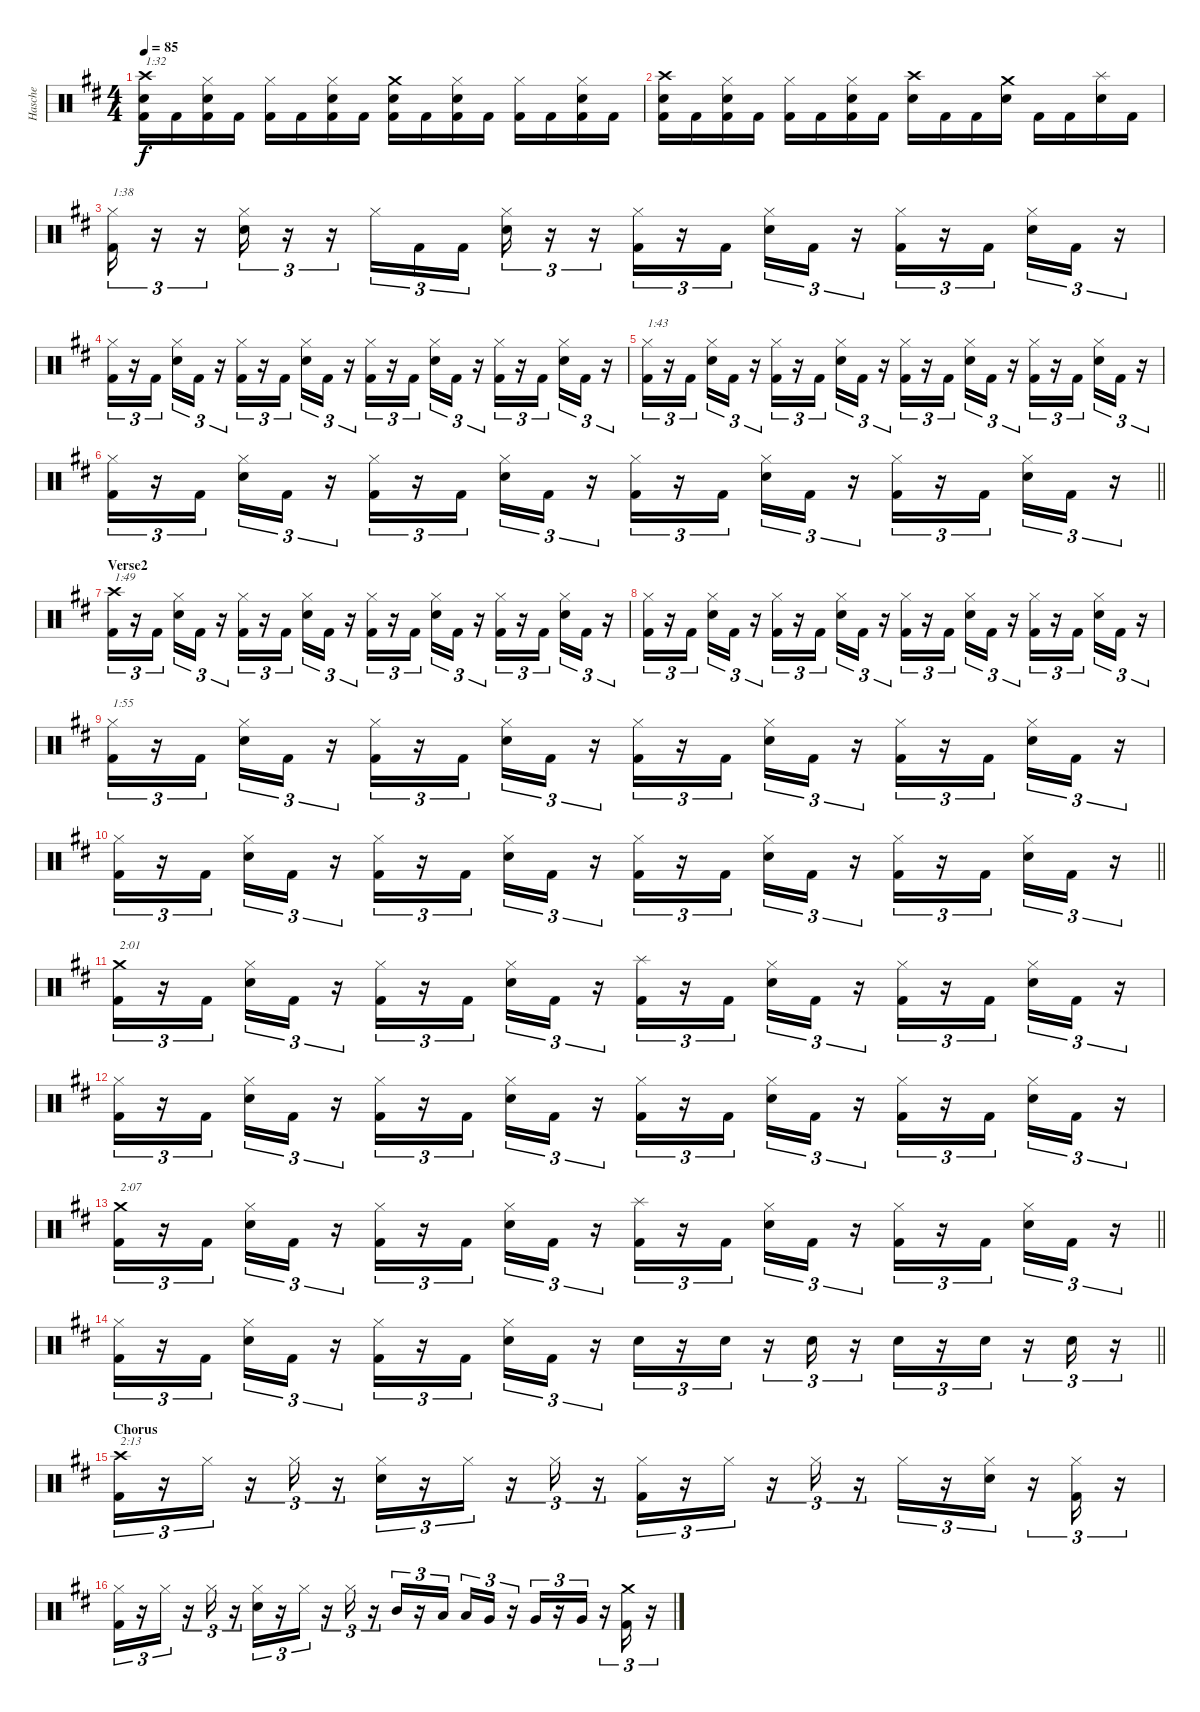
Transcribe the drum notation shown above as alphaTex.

\track ("Hasche" "Hasche") {instrument percussion}
\staff {score}
\articulation defaults
\ts (4 4)
\tempo 85
\clef neutral
\ks bminor
("Crash high (hit)" "Snare (hit) 2" "Kick (hit) 2").16{txt "1:32" dy f} "Kick (hit) 2".16 ("Hi-Hat (closed)" "Snare (hit) 2" "Kick (hit) 2").16 "Kick (hit) 2".16 ("Hi-Hat (closed)" "Kick (hit) 2").16 "Kick (hit) 2".16 ("Hi-Hat (closed)" "Snare (hit) 2" "Kick (hit) 2").16 "Kick (hit) 2".16 ("Crash medium (hit)" "Snare (hit) 2" "Kick (hit) 2").16 "Kick (hit) 2".16 ("Hi-Hat (closed)" "Snare (hit) 2" "Kick (hit) 2").16 "Kick (hit) 2".16 ("Hi-Hat (closed)" "Kick (hit) 2").16 "Kick (hit) 2".16 ("Hi-Hat (closed)" "Snare (hit) 2" "Kick (hit) 2").16 "Kick (hit) 2".16 |
("Crash high (hit)" "Snare (hit) 2" "Kick (hit) 2").16 "Kick (hit) 2".16 ("Hi-Hat (closed)" "Snare (hit) 2" "Kick (hit) 2").16 "Kick (hit) 2".16 ("Hi-Hat (closed)" "Kick (hit) 2").16 "Kick (hit) 2".16 ("Hi-Hat (closed)" "Snare (hit) 2" "Kick (hit) 2").16 "Kick (hit) 2".16 ("Crash high (hit)" "Snare (hit) 2").16 "Kick (hit) 2".16 "Kick (hit) 2".16 ("Crash medium (hit)" "Snare (hit) 2").16 "Kick (hit) 2".16 "Kick (hit) 2".16 ("Splash (hit)" "Snare (hit) 2").16 "Kick (hit) 2".16 |
("Hi-Hat (closed)" "Kick (hit) 2").16{tu (3 2) txt "1:38"} r.16{tu (3 2)} r.16{tu (3 2)} ("Hi-Hat (closed)" "Snare (hit) 2").16{tu (3 2)} r.16{tu (3 2)} r.16{tu (3 2)} "Hi-Hat (closed)".16{tu (3 2)} "Kick (hit) 2".16{tu (3 2)} "Kick (hit) 2".16{tu (3 2) beam splitsecondary} ("Hi-Hat (closed)" "Snare (hit) 2").16{tu (3 2)} r.16{tu (3 2)} r.16{tu (3 2)} ("Hi-Hat (closed)" "Kick (hit) 2").16{tu (3 2)} r.16{tu (3 2)} "Kick (hit) 2".16{tu (3 2) beam splitsecondary} ("Hi-Hat (closed)" "Snare (hit) 2").16{tu (3 2)} "Kick (hit) 2".16{tu (3 2)} r.16{tu (3 2)} ("Hi-Hat (closed)" "Kick (hit) 2").16{tu (3 2)} r.16{tu (3 2)} "Kick (hit) 2".16{tu (3 2) beam splitsecondary} ("Hi-Hat (closed)" "Snare (hit) 2").16{tu (3 2)} "Kick (hit) 2".16{tu (3 2)} r.16{tu (3 2)} |
("Hi-Hat (closed)" "Kick (hit) 2").16{tu (3 2)} r.16{tu (3 2)} "Kick (hit) 2".16{tu (3 2) beam splitsecondary} ("Hi-Hat (closed)" "Snare (hit) 2").16{tu (3 2)} "Kick (hit) 2".16{tu (3 2)} r.16{tu (3 2)} ("Hi-Hat (closed)" "Kick (hit) 2").16{tu (3 2)} r.16{tu (3 2)} "Kick (hit) 2".16{tu (3 2) beam splitsecondary} ("Hi-Hat (closed)" "Snare (hit) 2").16{tu (3 2)} "Kick (hit) 2".16{tu (3 2)} r.16{tu (3 2)} ("Hi-Hat (closed)" "Kick (hit) 2").16{tu (3 2)} r.16{tu (3 2)} "Kick (hit) 2".16{tu (3 2) beam splitsecondary} ("Hi-Hat (closed)" "Snare (hit) 2").16{tu (3 2)} "Kick (hit) 2".16{tu (3 2)} r.16{tu (3 2)} ("Hi-Hat (closed)" "Kick (hit) 2").16{tu (3 2)} r.16{tu (3 2)} "Kick (hit) 2".16{tu (3 2) beam splitsecondary} ("Hi-Hat (closed)" "Snare (hit) 2").16{tu (3 2)} "Kick (hit) 2".16{tu (3 2)} r.16{tu (3 2)} |
("Hi-Hat (closed)" "Kick (hit) 2").16{tu (3 2) txt "1:43"} r.16{tu (3 2)} "Kick (hit) 2".16{tu (3 2) beam splitsecondary} ("Hi-Hat (closed)" "Snare (hit) 2").16{tu (3 2)} "Kick (hit) 2".16{tu (3 2)} r.16{tu (3 2)} ("Hi-Hat (closed)" "Kick (hit) 2").16{tu (3 2)} r.16{tu (3 2)} "Kick (hit) 2".16{tu (3 2) beam splitsecondary} ("Hi-Hat (closed)" "Snare (hit) 2").16{tu (3 2)} "Kick (hit) 2".16{tu (3 2)} r.16{tu (3 2)} ("Hi-Hat (closed)" "Kick (hit) 2").16{tu (3 2)} r.16{tu (3 2)} "Kick (hit) 2".16{tu (3 2) beam splitsecondary} ("Hi-Hat (closed)" "Snare (hit) 2").16{tu (3 2)} "Kick (hit) 2".16{tu (3 2)} r.16{tu (3 2)} ("Hi-Hat (closed)" "Kick (hit) 2").16{tu (3 2)} r.16{tu (3 2)} "Kick (hit) 2".16{tu (3 2) beam splitsecondary} ("Hi-Hat (closed)" "Snare (hit) 2").16{tu (3 2)} "Kick (hit) 2".16{tu (3 2)} r.16{tu (3 2)} |
\barLineRight lightlight
("Hi-Hat (closed)" "Kick (hit) 2").16{tu (3 2)} r.16{tu (3 2)} "Kick (hit) 2".16{tu (3 2) beam splitsecondary} ("Hi-Hat (closed)" "Snare (hit) 2").16{tu (3 2)} "Kick (hit) 2".16{tu (3 2)} r.16{tu (3 2)} ("Hi-Hat (closed)" "Kick (hit) 2").16{tu (3 2)} r.16{tu (3 2)} "Kick (hit) 2".16{tu (3 2) beam splitsecondary} ("Hi-Hat (closed)" "Snare (hit) 2").16{tu (3 2)} "Kick (hit) 2".16{tu (3 2)} r.16{tu (3 2)} ("Hi-Hat (closed)" "Kick (hit) 2").16{tu (3 2)} r.16{tu (3 2)} "Kick (hit) 2".16{tu (3 2) beam splitsecondary} ("Hi-Hat (closed)" "Snare (hit) 2").16{tu (3 2)} "Kick (hit) 2".16{tu (3 2)} r.16{tu (3 2)} ("Hi-Hat (closed)" "Kick (hit) 2").16{tu (3 2)} r.16{tu (3 2)} "Kick (hit) 2".16{tu (3 2) beam splitsecondary} ("Hi-Hat (closed)" "Snare (hit) 2").16{tu (3 2)} "Kick (hit) 2".16{tu (3 2)} r.16{tu (3 2)} |
\section ("" "Verse2")
("Crash high (hit)" "Kick (hit) 2").16{tu (3 2) txt "1:49"} r.16{tu (3 2)} "Kick (hit) 2".16{tu (3 2) beam splitsecondary} ("Hi-Hat (closed)" "Snare (hit) 2").16{tu (3 2)} "Kick (hit) 2".16{tu (3 2)} r.16{tu (3 2)} ("Hi-Hat (closed)" "Kick (hit) 2").16{tu (3 2)} r.16{tu (3 2)} "Kick (hit) 2".16{tu (3 2) beam splitsecondary} ("Hi-Hat (closed)" "Snare (hit) 2").16{tu (3 2)} "Kick (hit) 2".16{tu (3 2)} r.16{tu (3 2)} ("Hi-Hat (closed)" "Kick (hit) 2").16{tu (3 2)} r.16{tu (3 2)} "Kick (hit) 2".16{tu (3 2) beam splitsecondary} ("Hi-Hat (closed)" "Snare (hit) 2").16{tu (3 2)} "Kick (hit) 2".16{tu (3 2)} r.16{tu (3 2)} ("Hi-Hat (closed)" "Kick (hit) 2").16{tu (3 2)} r.16{tu (3 2)} "Kick (hit) 2".16{tu (3 2) beam splitsecondary} ("Hi-Hat (closed)" "Snare (hit) 2").16{tu (3 2)} "Kick (hit) 2".16{tu (3 2)} r.16{tu (3 2)} |
("Hi-Hat (closed)" "Kick (hit) 2").16{tu (3 2)} r.16{tu (3 2)} "Kick (hit) 2".16{tu (3 2) beam splitsecondary} ("Hi-Hat (closed)" "Snare (hit) 2").16{tu (3 2)} "Kick (hit) 2".16{tu (3 2)} r.16{tu (3 2)} ("Hi-Hat (closed)" "Kick (hit) 2").16{tu (3 2)} r.16{tu (3 2)} "Kick (hit) 2".16{tu (3 2) beam splitsecondary} ("Hi-Hat (closed)" "Snare (hit) 2").16{tu (3 2)} "Kick (hit) 2".16{tu (3 2)} r.16{tu (3 2)} ("Hi-Hat (closed)" "Kick (hit) 2").16{tu (3 2)} r.16{tu (3 2)} "Kick (hit) 2".16{tu (3 2) beam splitsecondary} ("Hi-Hat (closed)" "Snare (hit) 2").16{tu (3 2)} "Kick (hit) 2".16{tu (3 2)} r.16{tu (3 2)} ("Hi-Hat (closed)" "Kick (hit) 2").16{tu (3 2)} r.16{tu (3 2)} "Kick (hit) 2".16{tu (3 2) beam splitsecondary} ("Hi-Hat (closed)" "Snare (hit) 2").16{tu (3 2)} "Kick (hit) 2".16{tu (3 2)} r.16{tu (3 2)} |
("Hi-Hat (closed)" "Kick (hit) 2").16{tu (3 2) txt "1:55"} r.16{tu (3 2)} "Kick (hit) 2".16{tu (3 2) beam splitsecondary} ("Hi-Hat (closed)" "Snare (hit) 2").16{tu (3 2)} "Kick (hit) 2".16{tu (3 2)} r.16{tu (3 2)} ("Hi-Hat (closed)" "Kick (hit) 2").16{tu (3 2)} r.16{tu (3 2)} "Kick (hit) 2".16{tu (3 2) beam splitsecondary} ("Hi-Hat (closed)" "Snare (hit) 2").16{tu (3 2)} "Kick (hit) 2".16{tu (3 2)} r.16{tu (3 2)} ("Hi-Hat (closed)" "Kick (hit) 2").16{tu (3 2)} r.16{tu (3 2)} "Kick (hit) 2".16{tu (3 2) beam splitsecondary} ("Hi-Hat (closed)" "Snare (hit) 2").16{tu (3 2)} "Kick (hit) 2".16{tu (3 2)} r.16{tu (3 2)} ("Hi-Hat (closed)" "Kick (hit) 2").16{tu (3 2)} r.16{tu (3 2)} "Kick (hit) 2".16{tu (3 2) beam splitsecondary} ("Hi-Hat (closed)" "Snare (hit) 2").16{tu (3 2)} "Kick (hit) 2".16{tu (3 2)} r.16{tu (3 2)} |
\barLineRight lightlight
("Hi-Hat (closed)" "Kick (hit) 2").16{tu (3 2)} r.16{tu (3 2)} "Kick (hit) 2".16{tu (3 2) beam splitsecondary} ("Hi-Hat (closed)" "Snare (hit) 2").16{tu (3 2)} "Kick (hit) 2".16{tu (3 2)} r.16{tu (3 2)} ("Hi-Hat (closed)" "Kick (hit) 2").16{tu (3 2)} r.16{tu (3 2)} "Kick (hit) 2".16{tu (3 2) beam splitsecondary} ("Hi-Hat (closed)" "Snare (hit) 2").16{tu (3 2)} "Kick (hit) 2".16{tu (3 2)} r.16{tu (3 2)} ("Hi-Hat (closed)" "Kick (hit) 2").16{tu (3 2)} r.16{tu (3 2)} "Kick (hit) 2".16{tu (3 2) beam splitsecondary} ("Hi-Hat (closed)" "Snare (hit) 2").16{tu (3 2)} "Kick (hit) 2".16{tu (3 2)} r.16{tu (3 2)} ("Hi-Hat (closed)" "Kick (hit) 2").16{tu (3 2)} r.16{tu (3 2)} "Kick (hit) 2".16{tu (3 2) beam splitsecondary} ("Hi-Hat (closed)" "Snare (hit) 2").16{tu (3 2)} "Kick (hit) 2".16{tu (3 2)} r.16{tu (3 2)} |
("Crash medium (hit)" "Kick (hit) 2").16{tu (3 2) txt "2:01"} r.16{tu (3 2)} "Kick (hit) 2".16{tu (3 2) beam splitsecondary} ("Hi-Hat (closed)" "Snare (hit) 2").16{tu (3 2)} "Kick (hit) 2".16{tu (3 2)} r.16{tu (3 2)} ("Hi-Hat (closed)" "Kick (hit) 2").16{tu (3 2)} r.16{tu (3 2)} "Kick (hit) 2".16{tu (3 2) beam splitsecondary} ("Hi-Hat (closed)" "Snare (hit) 2").16{tu (3 2)} "Kick (hit) 2".16{tu (3 2)} r.16{tu (3 2)} ("Splash (hit)" "Kick (hit) 2").16{tu (3 2)} r.16{tu (3 2)} "Kick (hit) 2".16{tu (3 2) beam splitsecondary} ("Hi-Hat (closed)" "Snare (hit) 2").16{tu (3 2)} "Kick (hit) 2".16{tu (3 2)} r.16{tu (3 2)} ("Hi-Hat (closed)" "Kick (hit) 2").16{tu (3 2)} r.16{tu (3 2)} "Kick (hit) 2".16{tu (3 2) beam splitsecondary} ("Hi-Hat (closed)" "Snare (hit) 2").16{tu (3 2)} "Kick (hit) 2".16{tu (3 2)} r.16{tu (3 2)} |
("Hi-Hat (closed)" "Kick (hit) 2").16{tu (3 2)} r.16{tu (3 2)} "Kick (hit) 2".16{tu (3 2) beam splitsecondary} ("Hi-Hat (closed)" "Snare (hit) 2").16{tu (3 2)} "Kick (hit) 2".16{tu (3 2)} r.16{tu (3 2)} ("Hi-Hat (closed)" "Kick (hit) 2").16{tu (3 2)} r.16{tu (3 2)} "Kick (hit) 2".16{tu (3 2) beam splitsecondary} ("Hi-Hat (closed)" "Snare (hit) 2").16{tu (3 2)} "Kick (hit) 2".16{tu (3 2)} r.16{tu (3 2)} ("Hi-Hat (closed)" "Kick (hit) 2").16{tu (3 2)} r.16{tu (3 2)} "Kick (hit) 2".16{tu (3 2) beam splitsecondary} ("Hi-Hat (closed)" "Snare (hit) 2").16{tu (3 2)} "Kick (hit) 2".16{tu (3 2)} r.16{tu (3 2)} ("Hi-Hat (closed)" "Kick (hit) 2").16{tu (3 2)} r.16{tu (3 2)} "Kick (hit) 2".16{tu (3 2) beam splitsecondary} ("Hi-Hat (closed)" "Snare (hit) 2").16{tu (3 2)} "Kick (hit) 2".16{tu (3 2)} r.16{tu (3 2)} |
\barLineRight lightlight
("Crash medium (hit)" "Kick (hit) 2").16{tu (3 2) txt "2:07"} r.16{tu (3 2)} "Kick (hit) 2".16{tu (3 2) beam splitsecondary} ("Hi-Hat (closed)" "Snare (hit) 2").16{tu (3 2)} "Kick (hit) 2".16{tu (3 2)} r.16{tu (3 2)} ("Hi-Hat (closed)" "Kick (hit) 2").16{tu (3 2)} r.16{tu (3 2)} "Kick (hit) 2".16{tu (3 2) beam splitsecondary} ("Hi-Hat (closed)" "Snare (hit) 2").16{tu (3 2)} "Kick (hit) 2".16{tu (3 2)} r.16{tu (3 2)} ("Splash (hit)" "Kick (hit) 2").16{tu (3 2)} r.16{tu (3 2)} "Kick (hit) 2".16{tu (3 2) beam splitsecondary} ("Hi-Hat (closed)" "Snare (hit) 2").16{tu (3 2)} "Kick (hit) 2".16{tu (3 2)} r.16{tu (3 2)} ("Hi-Hat (closed)" "Kick (hit) 2").16{tu (3 2)} r.16{tu (3 2)} "Kick (hit) 2".16{tu (3 2) beam splitsecondary} ("Hi-Hat (closed)" "Snare (hit) 2").16{tu (3 2)} "Kick (hit) 2".16{tu (3 2)} r.16{tu (3 2)} |
\barLineRight lightlight
("Hi-Hat (closed)" "Kick (hit) 2").16{tu (3 2)} r.16{tu (3 2)} "Kick (hit) 2".16{tu (3 2) beam splitsecondary} ("Hi-Hat (closed)" "Snare (hit) 2").16{tu (3 2)} "Kick (hit) 2".16{tu (3 2)} r.16{tu (3 2)} ("Hi-Hat (closed)" "Kick (hit) 2").16{tu (3 2)} r.16{tu (3 2)} "Kick (hit) 2".16{tu (3 2) beam splitsecondary} ("Hi-Hat (closed)" "Snare (hit) 2").16{tu (3 2)} "Kick (hit) 2".16{tu (3 2)} r.16{tu (3 2)} "Snare (hit) 2".16{tu (3 2)} r.16{tu (3 2)} "Snare (hit) 2".16{tu (3 2)} r.16{tu (3 2)} "Snare (hit) 2".16{tu (3 2)} r.16{tu (3 2)} "Snare (hit) 2".16{tu (3 2)} r.16{tu (3 2)} "Snare (hit) 2".16{tu (3 2)} r.16{tu (3 2)} "Snare (hit) 2".16{tu (3 2)} r.16{tu (3 2)} |
\section ("" "Chorus")
("Crash high (hit)" "Kick (hit) 2").16{tu (3 2) txt "2:13"} r.16{tu (3 2)} "Hi-Hat (closed)".16{tu (3 2)} r.16{tu (3 2)} "Hi-Hat (closed)".16{tu (3 2)} r.16{tu (3 2)} ("Hi-Hat (closed)" "Snare (hit) 2").16{tu (3 2)} r.16{tu (3 2)} "Hi-Hat (closed)".16{tu (3 2)} r.16{tu (3 2)} "Hi-Hat (closed)".16{tu (3 2)} r.16{tu (3 2)} ("Hi-Hat (closed)" "Kick (hit) 2").16{tu (3 2)} r.16{tu (3 2)} "Hi-Hat (closed)".16{tu (3 2)} r.16{tu (3 2)} "Hi-Hat (closed)".16{tu (3 2)} r.16{tu (3 2)} "Hi-Hat (closed)".16{tu (3 2)} r.16{tu (3 2)} ("Hi-Hat (closed)" "Snare (hit) 2").16{tu (3 2)} r.16{tu (3 2)} ("Hi-Hat (closed)" "Kick (hit) 2").16{tu (3 2)} r.16{tu (3 2)} |
("Hi-Hat (closed)" "Kick (hit) 2").16{tu (3 2)} r.16{tu (3 2)} "Hi-Hat (closed)".16{tu (3 2)} r.16{tu (3 2)} "Hi-Hat (closed)".16{tu (3 2)} r.16{tu (3 2)} ("Hi-Hat (closed)" "Snare (hit) 2").16{tu (3 2)} r.16{tu (3 2)} "Hi-Hat (closed)".16{tu (3 2)} r.16{tu (3 2)} "Hi-Hat (closed)".16{tu (3 2)} r.16{tu (3 2)} "Mid Tom (hit)".16{tu (3 2)} r.16{tu (3 2)} "Low Tom (hit)".16{tu (3 2) beam splitsecondary} "Low Tom (hit)".16{tu (3 2)} "Very Low Tom (hit)".16{tu (3 2)} r.16{tu (3 2)} "Very Low Tom (hit)".16{tu (3 2)} r.16{tu (3 2)} "Very Low Tom (hit)".16{tu (3 2)} r.16{tu (3 2)} ("Crash medium (hit)" "Kick (hit) 2").16{tu (3 2)} r.16{tu (3 2)}
